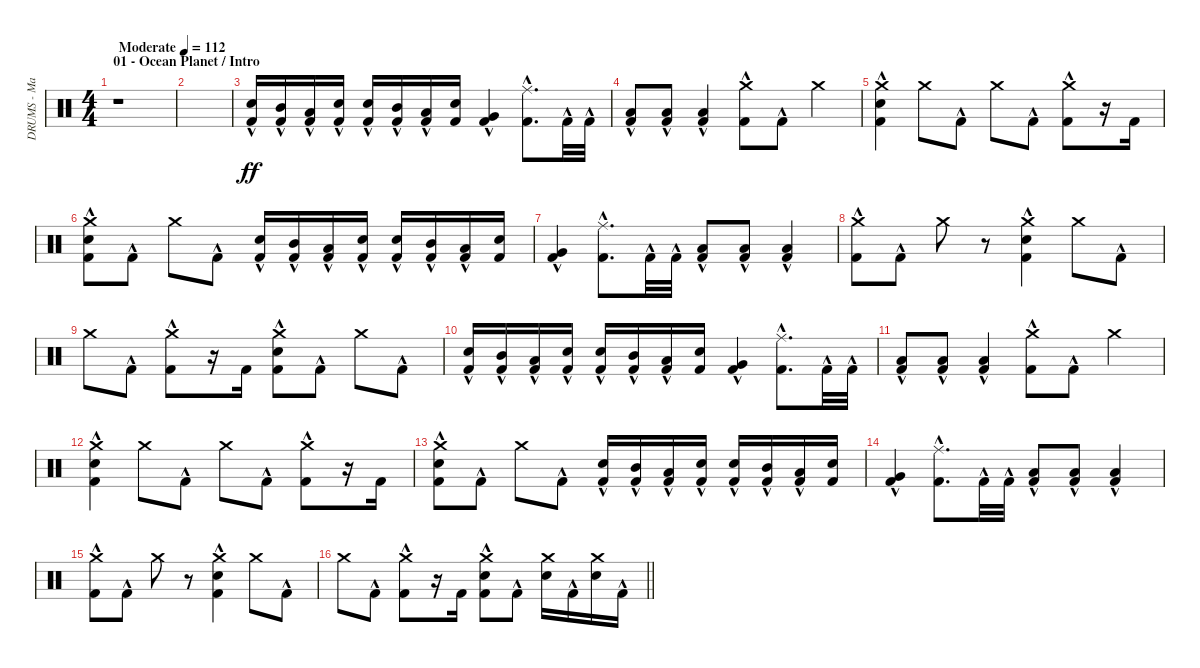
\track ("DRUMS - Mario Duplantier" "DRUMS - Ma") {instrument percussion}
\staff {score}
\articulation defaults
\ts (4 4)
\section ("" "01 - Ocean Planet / Intro")
\tempo (112 "Moderate")
\clef neutral
\ks c
r.1{dy ff} |
|
("Electric Snare (hit)" "Kick (hit) 2"{hac}).16 ("Mid Tom (hit)" "Kick (hit) 2"{hac}).16 ("Low Tom (hit)" "Kick (hit) 2"{hac}).16 ("Electric Snare (hit)" "Kick (hit) 2"{hac}).16 ("Electric Snare (hit)" "Kick (hit) 2"{hac}).16 ("Mid Tom (hit)" "Kick (hit) 2"{hac}).16 ("Low Tom (hit)" "Kick (hit) 2"{hac}).16 ("Electric Snare (hit)" "Kick (hit) 2").16 ("Very Low Tom (hit)" "Kick (hit) 2"{hac}).4 ("Ride (middle)" "Kick (hit) 2"{hac}).8{d} "Kick (hit) 2"{hac}.32 "Kick (hit) 2"{hac}.32 |
("Low Tom (hit)" "Kick (hit) 2"{hac}).8 ("Low Tom (hit)" "Kick (hit) 2"{hac}).8 ("Low Tom (hit)" "Kick (hit) 2"{hac}).4 ("Crash medium (hit)" "Kick (hit) 2"{hac}).8 "Kick (hit) 2"{hac}.8 "Crash medium (hit)".4 |
("Crash medium (hit)" "Electric Snare (hit)" "Kick (hit) 2"{hac}).4 "Crash medium (hit)".8 "Kick (hit) 2"{hac}.8 "Crash medium (hit)".8 "Kick (hit) 2"{hac}.8 ("Crash medium (hit)" "Kick (hit) 2"{hac}).8 r.16 "Kick (hit) 2".16 |
("Crash medium (hit)" "Electric Snare (hit)" "Kick (hit) 2"{hac}).8 "Kick (hit) 2"{hac}.8 "Crash medium (hit)".8 "Kick (hit) 2"{hac}.8 ("Electric Snare (hit)" "Kick (hit) 2"{hac}).16 ("Mid Tom (hit)" "Kick (hit) 2"{hac}).16 ("Low Tom (hit)" "Kick (hit) 2"{hac}).16 ("Electric Snare (hit)" "Kick (hit) 2"{hac}).16 ("Electric Snare (hit)" "Kick (hit) 2"{hac}).16 ("Mid Tom (hit)" "Kick (hit) 2"{hac}).16 ("Low Tom (hit)" "Kick (hit) 2"{hac}).16 ("Electric Snare (hit)" "Kick (hit) 2").16 |
("Very Low Tom (hit)" "Kick (hit) 2"{hac}).4 ("Ride (middle)" "Kick (hit) 2"{hac}).8{d} "Kick (hit) 2"{hac}.32 "Kick (hit) 2"{hac}.32 ("Low Tom (hit)" "Kick (hit) 2"{hac}).8 ("Low Tom (hit)" "Kick (hit) 2"{hac}).8 ("Low Tom (hit)" "Kick (hit) 2"{hac}).4 |
("Crash medium (hit)" "Kick (hit) 2"{hac}).8 "Kick (hit) 2"{hac}.8 "Crash medium (hit)".8 r.8 ("Crash medium (hit)" "Electric Snare (hit)" "Kick (hit) 2"{hac}).4 "Crash medium (hit)".8 "Kick (hit) 2"{hac}.8 |
"Crash medium (hit)".8 "Kick (hit) 2"{hac}.8 ("Crash medium (hit)" "Kick (hit) 2"{hac}).8 r.16 "Kick (hit) 2".16 ("Crash medium (hit)" "Electric Snare (hit)" "Kick (hit) 2"{hac}).8 "Kick (hit) 2"{hac}.8 "Crash medium (hit)".8 "Kick (hit) 2"{hac}.8 |
("Electric Snare (hit)" "Kick (hit) 2"{hac}).16 ("Mid Tom (hit)" "Kick (hit) 2"{hac}).16 ("Low Tom (hit)" "Kick (hit) 2"{hac}).16 ("Electric Snare (hit)" "Kick (hit) 2"{hac}).16 ("Electric Snare (hit)" "Kick (hit) 2"{hac}).16 ("Mid Tom (hit)" "Kick (hit) 2"{hac}).16 ("Low Tom (hit)" "Kick (hit) 2"{hac}).16 ("Electric Snare (hit)" "Kick (hit) 2").16 ("Very Low Tom (hit)" "Kick (hit) 2"{hac}).4 ("Ride (middle)" "Kick (hit) 2"{hac}).8{d} "Kick (hit) 2"{hac}.32 "Kick (hit) 2"{hac}.32 |
("Low Tom (hit)" "Kick (hit) 2"{hac}).8 ("Low Tom (hit)" "Kick (hit) 2"{hac}).8 ("Low Tom (hit)" "Kick (hit) 2"{hac}).4 ("Crash medium (hit)" "Kick (hit) 2"{hac}).8 "Kick (hit) 2"{hac}.8 "Crash medium (hit)".4 |
("Crash medium (hit)" "Electric Snare (hit)" "Kick (hit) 2"{hac}).4 "Crash medium (hit)".8 "Kick (hit) 2"{hac}.8 "Crash medium (hit)".8 "Kick (hit) 2"{hac}.8 ("Crash medium (hit)" "Kick (hit) 2"{hac}).8 r.16 "Kick (hit) 2".16 |
("Crash medium (hit)" "Electric Snare (hit)" "Kick (hit) 2"{hac}).8 "Kick (hit) 2"{hac}.8 "Crash medium (hit)".8 "Kick (hit) 2"{hac}.8 ("Electric Snare (hit)" "Kick (hit) 2"{hac}).16 ("Mid Tom (hit)" "Kick (hit) 2"{hac}).16 ("Low Tom (hit)" "Kick (hit) 2"{hac}).16 ("Electric Snare (hit)" "Kick (hit) 2"{hac}).16 ("Electric Snare (hit)" "Kick (hit) 2"{hac}).16 ("Mid Tom (hit)" "Kick (hit) 2"{hac}).16 ("Low Tom (hit)" "Kick (hit) 2"{hac}).16 ("Electric Snare (hit)" "Kick (hit) 2").16 |
("Very Low Tom (hit)" "Kick (hit) 2"{hac}).4 ("Ride (middle)" "Kick (hit) 2"{hac}).8{d} "Kick (hit) 2"{hac}.32 "Kick (hit) 2"{hac}.32 ("Low Tom (hit)" "Kick (hit) 2"{hac}).8 ("Low Tom (hit)" "Kick (hit) 2"{hac}).8 ("Low Tom (hit)" "Kick (hit) 2"{hac}).4 |
("Crash medium (hit)" "Kick (hit) 2"{hac}).8 "Kick (hit) 2"{hac}.8 "Crash medium (hit)".8 r.8 ("Crash medium (hit)" "Electric Snare (hit)" "Kick (hit) 2"{hac}).4 "Crash medium (hit)".8 "Kick (hit) 2"{hac}.8 |
\barLineRight lightlight "Crash medium (hit)".8 "Kick (hit) 2"{hac}.8
("Crash medium (hit)" "Kick (hit) 2"{hac}).8 r.16 "Kick (hit) 2".16 ("Crash medium (hit)" "Electric Snare (hit)" "Kick (hit) 2"{hac}).8 "Kick (hit) 2"{hac}.8 ("Crash medium (hit)" "Electric Snare (hit)").16 "Kick (hit) 2"{hac}.16 ("Crash medium (hit)" "Electric Snare (hit)").16 "Kick (hit) 2"{hac}.16
